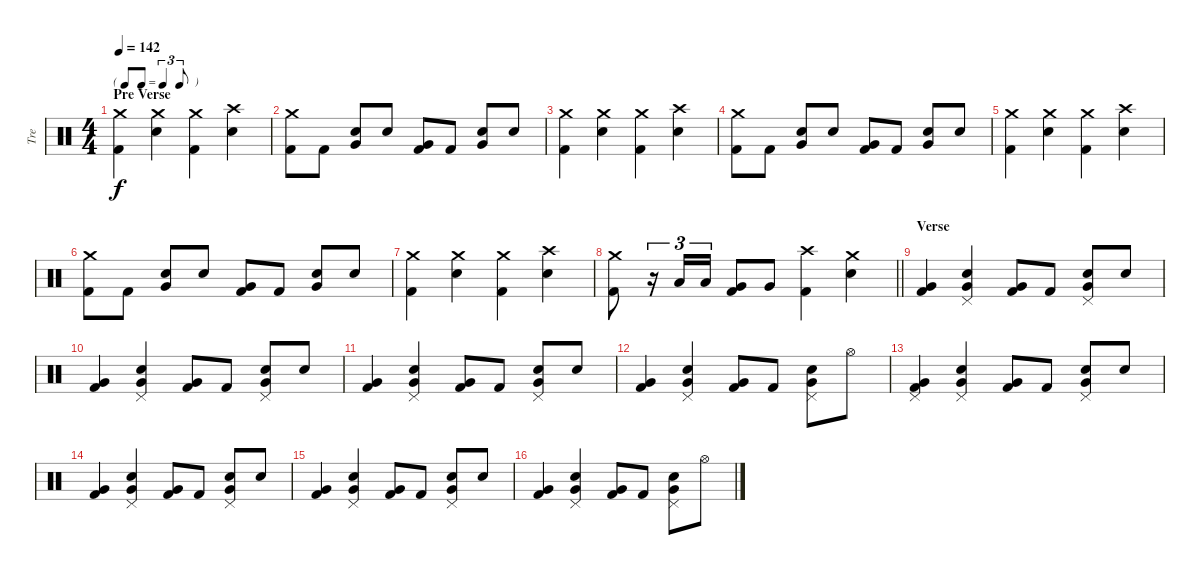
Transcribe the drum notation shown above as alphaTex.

\track ("Tre" "Tre") {instrument percussion}
\staff {score}
\articulation defaults
\ts (4 4)
\tf triplet8th
\section ("" "Pre Verse")
\tempo 142
\clef neutral
\ks c
("Crash medium (hit)" "Kick (hit) 2").4{dy f} ("Crash medium (hit)" "Snare (hit) 2").4 ("Crash medium (hit)" "Kick (hit) 2").4 ("Crash high (hit)" "Snare (hit) 2").4 |
("Crash medium (hit)" "Kick (hit) 2").8 "Kick (hit) 2".8 ("Snare (hit) 2" "Very Low Tom (hit)").8 "Snare (hit) 2".8 ("Very Low Tom (hit)" "Kick (hit) 2").8 "Kick (hit) 2".8 ("Snare (hit) 2" "Very Low Tom (hit)").8 "Snare (hit) 2".8 |
("Crash medium (hit)" "Kick (hit) 2").4 ("Crash medium (hit)" "Snare (hit) 2").4 ("Crash medium (hit)" "Kick (hit) 2").4 ("Crash high (hit)" "Snare (hit) 2").4 |
("Crash medium (hit)" "Kick (hit) 2").8 "Kick (hit) 2".8 ("Snare (hit) 2" "Very Low Tom (hit)").8 "Snare (hit) 2".8 ("Very Low Tom (hit)" "Kick (hit) 2").8 "Kick (hit) 2".8 ("Snare (hit) 2" "Very Low Tom (hit)").8 "Snare (hit) 2".8 |
("Crash medium (hit)" "Kick (hit) 2").4 ("Crash medium (hit)" "Snare (hit) 2").4 ("Crash medium (hit)" "Kick (hit) 2").4 ("Crash high (hit)" "Snare (hit) 2").4 |
("Crash medium (hit)" "Kick (hit) 2").8 "Kick (hit) 2".8 ("Snare (hit) 2" "Very Low Tom (hit)").8 "Snare (hit) 2".8 ("Very Low Tom (hit)" "Kick (hit) 2").8 "Kick (hit) 2".8 ("Snare (hit) 2" "Very Low Tom (hit)").8 "Snare (hit) 2".8 |
("Crash medium (hit)" "Kick (hit) 2").4 ("Crash medium (hit)" "Snare (hit) 2").4 ("Crash medium (hit)" "Kick (hit) 2").4 ("Crash high (hit)" "Snare (hit) 2").4 |
\barLineRight lightlight
("Crash medium (hit)" "Kick (hit) 2").8 r.16{tu (3 2)} "Low Tom (hit)".16{tu (3 2)} "Low Tom (hit)".16{tu (3 2)} ("Very Low Tom (hit)" "Kick (hit) 2").8 "Very Low Tom (hit)".8 ("Crash high (hit)" "Kick (hit) 2").4 ("Crash medium (hit)" "Snare (hit) 2").4 |
\section ("" "Verse")
("Very Low Tom (hit)" "Kick (hit) 2").4 ("Pedal Hi-Hat (hit)" "Snare (hit) 2" "Very Low Tom (hit)").4 ("Very Low Tom (hit)" "Kick (hit) 2").8 "Kick (hit) 2".8 ("Pedal Hi-Hat (hit)" "Snare (hit) 2" "Very Low Tom (hit)").8 "Snare (hit) 2".8 |
("Very Low Tom (hit)" "Kick (hit) 2").4 ("Pedal Hi-Hat (hit)" "Snare (hit) 2" "Very Low Tom (hit)").4 ("Very Low Tom (hit)" "Kick (hit) 2").8 "Kick (hit) 2".8 ("Pedal Hi-Hat (hit)" "Snare (hit) 2" "Very Low Tom (hit)").8 "Snare (hit) 2".8 |
("Very Low Tom (hit)" "Kick (hit) 2").4 ("Pedal Hi-Hat (hit)" "Snare (hit) 2" "Very Low Tom (hit)").4 ("Very Low Tom (hit)" "Kick (hit) 2").8 "Kick (hit) 2".8 ("Pedal Hi-Hat (hit)" "Snare (hit) 2" "Very Low Tom (hit)").8 "Snare (hit) 2".8 |
("Very Low Tom (hit)" "Kick (hit) 2").4 ("Pedal Hi-Hat (hit)" "Snare (hit) 2" "Very Low Tom (hit)").4 ("Very Low Tom (hit)" "Kick (hit) 2").8 "Kick (hit) 2".8 ("Pedal Hi-Hat (hit)" "Snare (hit) 2" "Very Low Tom (hit)").8 "Hi-Hat (open)".8 |
("Pedal Hi-Hat (hit)" "Very Low Tom (hit)" "Kick (hit) 2").4 ("Pedal Hi-Hat (hit)" "Snare (hit) 2" "Very Low Tom (hit)").4 ("Very Low Tom (hit)" "Kick (hit) 2").8 "Kick (hit) 2".8 ("Pedal Hi-Hat (hit)" "Snare (hit) 2" "Very Low Tom (hit)").8 "Snare (hit) 2".8 |
("Very Low Tom (hit)" "Kick (hit) 2").4 ("Pedal Hi-Hat (hit)" "Snare (hit) 2" "Very Low Tom (hit)").4 ("Very Low Tom (hit)" "Kick (hit) 2").8 "Kick (hit) 2".8 ("Pedal Hi-Hat (hit)" "Snare (hit) 2" "Very Low Tom (hit)").8 "Snare (hit) 2".8 |
("Very Low Tom (hit)" "Kick (hit) 2").4 ("Pedal Hi-Hat (hit)" "Snare (hit) 2" "Very Low Tom (hit)").4 ("Very Low Tom (hit)" "Kick (hit) 2").8 "Kick (hit) 2".8 ("Pedal Hi-Hat (hit)" "Snare (hit) 2" "Very Low Tom (hit)").8 "Snare (hit) 2".8 |
("Very Low Tom (hit)" "Kick (hit) 2").4 ("Pedal Hi-Hat (hit)" "Snare (hit) 2" "Very Low Tom (hit)").4 ("Very Low Tom (hit)" "Kick (hit) 2").8 "Kick (hit) 2".8 ("Pedal Hi-Hat (hit)" "Snare (hit) 2" "Very Low Tom (hit)").8 "Hi-Hat (open)".8
